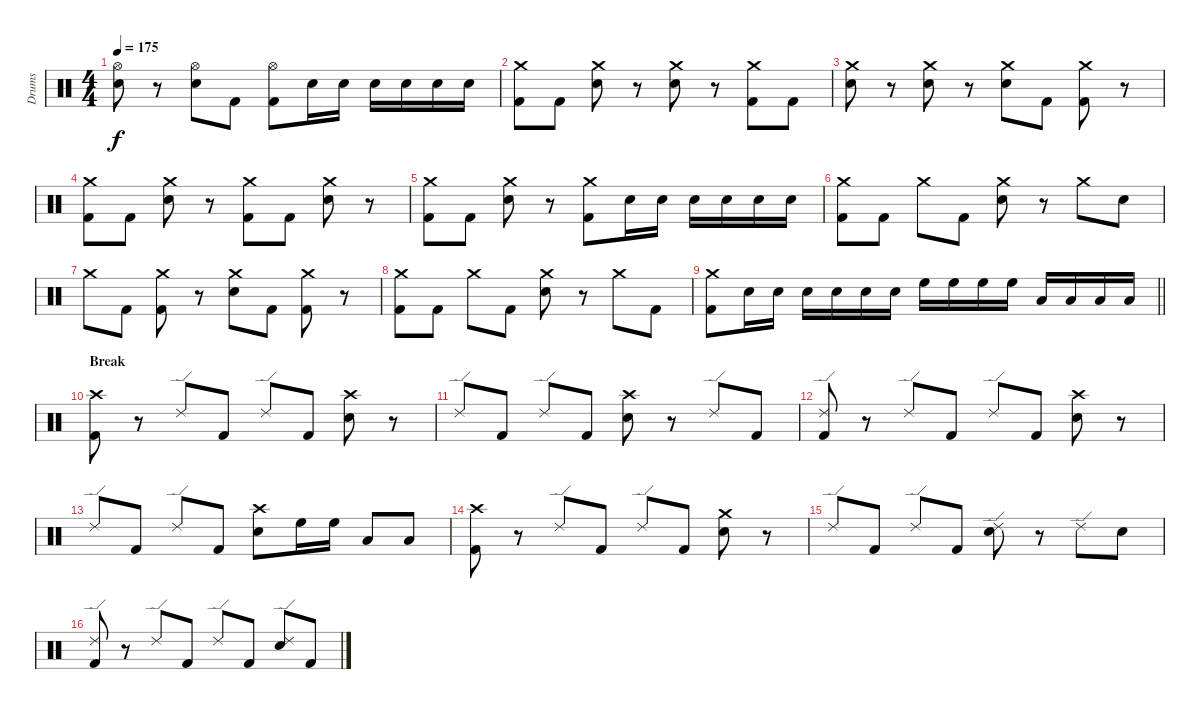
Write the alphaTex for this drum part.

\track ("Drums" "Drums") {instrument percussion}
\staff {score}
\articulation defaults
\ts (4 4)
\tempo 175
\clef neutral
\ks c
("Hi-Hat (open)" "Snare (hit) 2").8{dy f} r.8 ("Hi-Hat (open)" "Snare (hit) 2").8 "Kick (hit) 2".8 ("Hi-Hat (open)" "Kick (hit) 2").8 "Snare (hit) 2".16 "Snare (hit) 2".16 "Snare (hit) 2".16 "Snare (hit) 2".16 "Snare (hit) 2".16 "Snare (hit) 2".16 |
("Crash medium (hit)" "Kick (hit) 2").8 "Kick (hit) 2".8 ("Crash medium (hit)" "Snare (hit) 2").8 r.8 ("Crash medium (hit)" "Snare (hit) 2").8 r.8 ("Crash medium (hit)" "Kick (hit) 2").8 "Kick (hit) 2".8 |
("Crash medium (hit)" "Snare (hit) 2").8 r.8 ("Crash medium (hit)" "Snare (hit) 2").8 r.8 ("Crash medium (hit)" "Snare (hit) 2").8 "Kick (hit) 2".8 ("Crash medium (hit)" "Kick (hit) 2").8 r.8 |
("Crash medium (hit)" "Kick (hit) 2").8 "Kick (hit) 2".8 ("Crash medium (hit)" "Snare (hit) 2").8 r.8 ("Crash medium (hit)" "Kick (hit) 2").8 "Kick (hit) 2".8 ("Crash medium (hit)" "Snare (hit) 2").8 r.8 |
("Crash medium (hit)" "Kick (hit) 2").8 "Kick (hit) 2".8 ("Crash medium (hit)" "Snare (hit) 2").8 r.8 ("Crash medium (hit)" "Kick (hit) 2").8 "Snare (hit) 2".16 "Snare (hit) 2".16 "Snare (hit) 2".16 "Snare (hit) 2".16 "Snare (hit) 2".16 "Snare (hit) 2".16 |
("Crash medium (hit)" "Kick (hit) 2").8 "Kick (hit) 2".8 "Crash medium (hit)".8 "Kick (hit) 2".8 ("Crash medium (hit)" "Snare (hit) 2").8 r.8 "Crash medium (hit)".8 "Snare (hit) 2".8 |
"Crash medium (hit)".8 "Kick (hit) 2".8 ("Crash medium (hit)" "Kick (hit) 2").8 r.8 ("Crash medium (hit)" "Snare (hit) 2").8 "Kick (hit) 2".8 ("Crash medium (hit)" "Kick (hit) 2").8 r.8 |
("Crash medium (hit)" "Kick (hit) 2").8 "Kick (hit) 2".8 "Crash medium (hit)".8 "Kick (hit) 2".8 ("Crash medium (hit)" "Snare (hit) 2").8 r.8 "Crash medium (hit)".8 "Kick (hit) 2".8 |
\barLineRight lightlight
("Crash medium (hit)" "Kick (hit) 2").8 "Snare (hit) 2".16 "Snare (hit) 2".16 "Snare (hit) 2".16 "Snare (hit) 2".16 "Snare (hit) 2".16 "Snare (hit) 2".16 "High Floor Tom (hit)".16 "High Floor Tom (hit)".16 "High Floor Tom (hit)".16 "High Floor Tom (hit)".16 "Low Floor Tom (hit)".16 "Low Floor Tom (hit)".16 "Low Floor Tom (hit)".16 "Low Floor Tom (hit)".16 |
\section ("" "Break")
("Crash high (hit)" "Kick (hit) 2").8 r.8 "Ride (edge) 2".8 "Kick (hit) 2".8 "Ride (edge) 2".8 "Kick (hit) 2".8 ("Crash high (hit)" "Snare (hit) 2").8 r.8 |
"Ride (edge) 2".8 "Kick (hit) 2".8 "Ride (edge) 2".8 "Kick (hit) 2".8 ("Crash high (hit)" "Snare (hit) 2").8 r.8 "Ride (edge) 2".8 "Kick (hit) 2".8 |
("Ride (edge) 2" "Kick (hit) 2").8 r.8 "Ride (edge) 2".8 "Kick (hit) 2".8 "Ride (edge) 2".8 "Kick (hit) 2".8 ("Crash high (hit)" "Snare (hit) 2").8 r.8 |
"Ride (edge) 2".8 "Kick (hit) 2".8 "Ride (edge) 2".8 "Kick (hit) 2".8 ("Crash high (hit)" "Snare (hit) 2").8 "High Floor Tom (hit)".16 "High Floor Tom (hit)".16 "Low Floor Tom (hit)".8 "Low Floor Tom (hit)".8 |
("Crash high (hit)" "Kick (hit) 2").8 r.8 "Ride (edge) 2".8 "Kick (hit) 2".8 "Ride (edge) 2".8 "Kick (hit) 2".8 ("Crash medium (hit)" "Snare (hit) 2").8 r.8 |
"Ride (edge) 2".8 "Kick (hit) 2".8 "Ride (edge) 2".8 "Kick (hit) 2".8 ("Ride (edge) 2" "Snare (hit) 2").8 r.8 "Ride (edge) 2".8 "Snare (hit) 2".8 |
("Ride (edge) 2" "Kick (hit) 2").8 r.8 "Ride (edge) 2".8 "Kick (hit) 2".8 "Ride (edge) 2".8 "Kick (hit) 2".8 ("Ride (edge) 2" "Snare (hit) 2").8 "Kick (hit) 2".8
